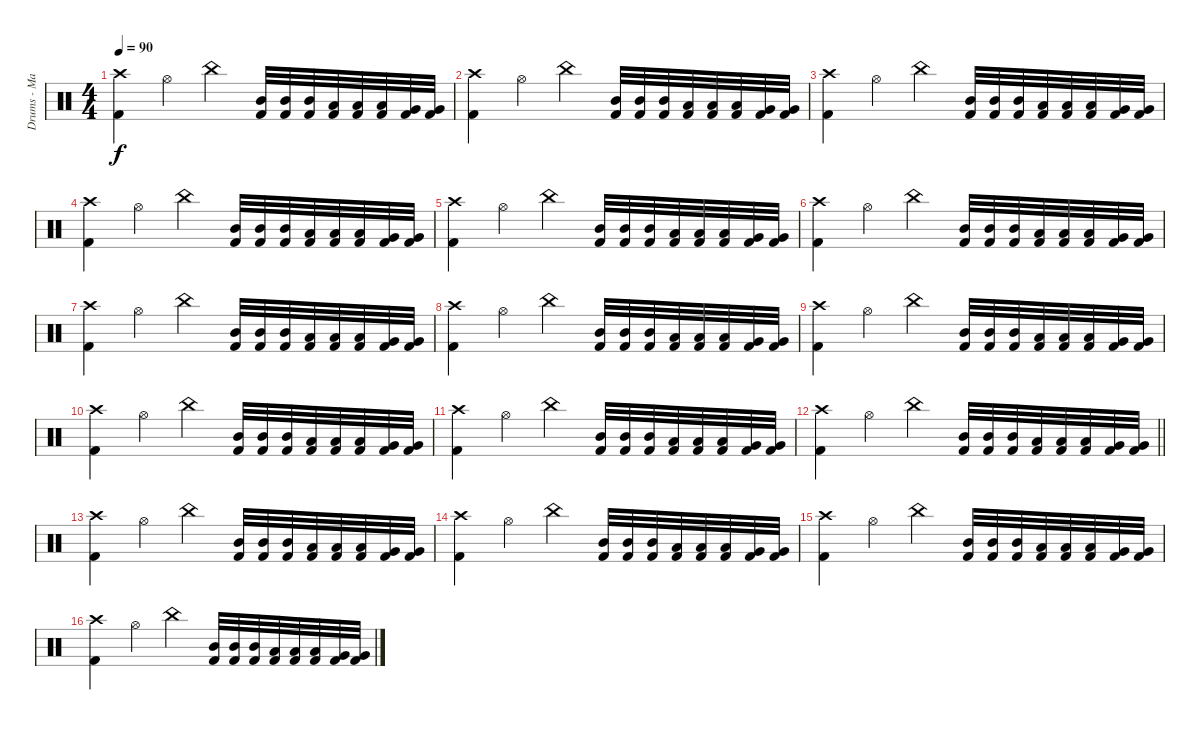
\track ("Drums - Mario Duplantier" "Drums - Ma") {instrument percussion}
\staff {score}
\articulation defaults
\ts (4 4)
\section ("" "")
\tempo 90
\clef neutral
\ks c
("Crash high (hit)" "Kick (hit) 2").4{dy f} "Hi-Hat (open)".4 "China (hit)".4 ("Mid Tom (hit)" "Kick (hit) 2").32 ("Mid Tom (hit)" "Kick (hit) 2").32 ("Mid Tom (hit)" "Kick (hit) 2").32 ("Low Tom (hit)" "Kick (hit) 2").32 ("Low Tom (hit)" "Kick (hit) 2").32 ("Low Tom (hit)" "Kick (hit) 2").32 ("Very Low Tom (hit)" "Kick (hit) 2").32 ("Very Low Tom (hit)" "Kick (hit) 2").32 |
("Crash high (hit)" "Kick (hit) 2").4 "Hi-Hat (open)".4 "China (hit)".4 ("Mid Tom (hit)" "Kick (hit) 2").32 ("Mid Tom (hit)" "Kick (hit) 2").32 ("Mid Tom (hit)" "Kick (hit) 2").32 ("Low Tom (hit)" "Kick (hit) 2").32 ("Low Tom (hit)" "Kick (hit) 2").32 ("Low Tom (hit)" "Kick (hit) 2").32 ("Very Low Tom (hit)" "Kick (hit) 2").32 ("Very Low Tom (hit)" "Kick (hit) 2").32 |
("Crash high (hit)" "Kick (hit) 2").4 "Hi-Hat (open)".4 "China (hit)".4 ("Mid Tom (hit)" "Kick (hit) 2").32 ("Mid Tom (hit)" "Kick (hit) 2").32 ("Mid Tom (hit)" "Kick (hit) 2").32 ("Low Tom (hit)" "Kick (hit) 2").32 ("Low Tom (hit)" "Kick (hit) 2").32 ("Low Tom (hit)" "Kick (hit) 2").32 ("Very Low Tom (hit)" "Kick (hit) 2").32 ("Very Low Tom (hit)" "Kick (hit) 2").32 |
("Crash high (hit)" "Kick (hit) 2").4 "Hi-Hat (open)".4 "China (hit)".4 ("Mid Tom (hit)" "Kick (hit) 2").32 ("Mid Tom (hit)" "Kick (hit) 2").32 ("Mid Tom (hit)" "Kick (hit) 2").32 ("Low Tom (hit)" "Kick (hit) 2").32 ("Low Tom (hit)" "Kick (hit) 2").32 ("Low Tom (hit)" "Kick (hit) 2").32 ("Very Low Tom (hit)" "Kick (hit) 2").32 ("Very Low Tom (hit)" "Kick (hit) 2").32 |
("Crash high (hit)" "Kick (hit) 2").4 "Hi-Hat (open)".4 "China (hit)".4 ("Mid Tom (hit)" "Kick (hit) 2").32 ("Mid Tom (hit)" "Kick (hit) 2").32 ("Mid Tom (hit)" "Kick (hit) 2").32 ("Low Tom (hit)" "Kick (hit) 2").32 ("Low Tom (hit)" "Kick (hit) 2").32 ("Low Tom (hit)" "Kick (hit) 2").32 ("Very Low Tom (hit)" "Kick (hit) 2").32 ("Very Low Tom (hit)" "Kick (hit) 2").32 |
("Crash high (hit)" "Kick (hit) 2").4 "Hi-Hat (open)".4 "China (hit)".4 ("Mid Tom (hit)" "Kick (hit) 2").32 ("Mid Tom (hit)" "Kick (hit) 2").32 ("Mid Tom (hit)" "Kick (hit) 2").32 ("Low Tom (hit)" "Kick (hit) 2").32 ("Low Tom (hit)" "Kick (hit) 2").32 ("Low Tom (hit)" "Kick (hit) 2").32 ("Very Low Tom (hit)" "Kick (hit) 2").32 ("Very Low Tom (hit)" "Kick (hit) 2").32 |
("Crash high (hit)" "Kick (hit) 2").4 "Hi-Hat (open)".4 "China (hit)".4 ("Mid Tom (hit)" "Kick (hit) 2").32 ("Mid Tom (hit)" "Kick (hit) 2").32 ("Mid Tom (hit)" "Kick (hit) 2").32 ("Low Tom (hit)" "Kick (hit) 2").32 ("Low Tom (hit)" "Kick (hit) 2").32 ("Low Tom (hit)" "Kick (hit) 2").32 ("Very Low Tom (hit)" "Kick (hit) 2").32 ("Very Low Tom (hit)" "Kick (hit) 2").32 |
("Crash high (hit)" "Kick (hit) 2").4 "Hi-Hat (open)".4 "China (hit)".4 ("Mid Tom (hit)" "Kick (hit) 2").32 ("Mid Tom (hit)" "Kick (hit) 2").32 ("Mid Tom (hit)" "Kick (hit) 2").32 ("Low Tom (hit)" "Kick (hit) 2").32 ("Low Tom (hit)" "Kick (hit) 2").32 ("Low Tom (hit)" "Kick (hit) 2").32 ("Very Low Tom (hit)" "Kick (hit) 2").32 ("Very Low Tom (hit)" "Kick (hit) 2").32 |
("Crash high (hit)" "Kick (hit) 2").4 "Hi-Hat (open)".4 "China (hit)".4 ("Mid Tom (hit)" "Kick (hit) 2").32 ("Mid Tom (hit)" "Kick (hit) 2").32 ("Mid Tom (hit)" "Kick (hit) 2").32 ("Low Tom (hit)" "Kick (hit) 2").32 ("Low Tom (hit)" "Kick (hit) 2").32 ("Low Tom (hit)" "Kick (hit) 2").32 ("Very Low Tom (hit)" "Kick (hit) 2").32 ("Very Low Tom (hit)" "Kick (hit) 2").32 |
("Crash high (hit)" "Kick (hit) 2").4 "Hi-Hat (open)".4 "China (hit)".4 ("Mid Tom (hit)" "Kick (hit) 2").32 ("Mid Tom (hit)" "Kick (hit) 2").32 ("Mid Tom (hit)" "Kick (hit) 2").32 ("Low Tom (hit)" "Kick (hit) 2").32 ("Low Tom (hit)" "Kick (hit) 2").32 ("Low Tom (hit)" "Kick (hit) 2").32 ("Very Low Tom (hit)" "Kick (hit) 2").32 ("Very Low Tom (hit)" "Kick (hit) 2").32 |
("Crash high (hit)" "Kick (hit) 2").4 "Hi-Hat (open)".4 "China (hit)".4 ("Mid Tom (hit)" "Kick (hit) 2").32 ("Mid Tom (hit)" "Kick (hit) 2").32 ("Mid Tom (hit)" "Kick (hit) 2").32 ("Low Tom (hit)" "Kick (hit) 2").32 ("Low Tom (hit)" "Kick (hit) 2").32 ("Low Tom (hit)" "Kick (hit) 2").32 ("Very Low Tom (hit)" "Kick (hit) 2").32 ("Very Low Tom (hit)" "Kick (hit) 2").32 |
\barLineRight lightlight
("Crash high (hit)" "Kick (hit) 2").4 "Hi-Hat (open)".4 "China (hit)".4 ("Mid Tom (hit)" "Kick (hit) 2").32 ("Mid Tom (hit)" "Kick (hit) 2").32 ("Mid Tom (hit)" "Kick (hit) 2").32 ("Low Tom (hit)" "Kick (hit) 2").32 ("Low Tom (hit)" "Kick (hit) 2").32 ("Low Tom (hit)" "Kick (hit) 2").32 ("Very Low Tom (hit)" "Kick (hit) 2").32 ("Very Low Tom (hit)" "Kick (hit) 2").32 |
\section ("" "")
("Crash high (hit)" "Kick (hit) 2").4 "Hi-Hat (open)".4 "China (hit)".4 ("Mid Tom (hit)" "Kick (hit) 2").32 ("Mid Tom (hit)" "Kick (hit) 2").32 ("Mid Tom (hit)" "Kick (hit) 2").32 ("Low Tom (hit)" "Kick (hit) 2").32 ("Low Tom (hit)" "Kick (hit) 2").32 ("Low Tom (hit)" "Kick (hit) 2").32 ("Very Low Tom (hit)" "Kick (hit) 2").32 ("Very Low Tom (hit)" "Kick (hit) 2").32 |
("Crash high (hit)" "Kick (hit) 2").4 "Hi-Hat (open)".4 "China (hit)".4 ("Mid Tom (hit)" "Kick (hit) 2").32 ("Mid Tom (hit)" "Kick (hit) 2").32 ("Mid Tom (hit)" "Kick (hit) 2").32 ("Low Tom (hit)" "Kick (hit) 2").32 ("Low Tom (hit)" "Kick (hit) 2").32 ("Low Tom (hit)" "Kick (hit) 2").32 ("Very Low Tom (hit)" "Kick (hit) 2").32 ("Very Low Tom (hit)" "Kick (hit) 2").32 |
("Crash high (hit)" "Kick (hit) 2").4 "Hi-Hat (open)".4 "China (hit)".4 ("Mid Tom (hit)" "Kick (hit) 2").32 ("Mid Tom (hit)" "Kick (hit) 2").32 ("Mid Tom (hit)" "Kick (hit) 2").32 ("Low Tom (hit)" "Kick (hit) 2").32 ("Low Tom (hit)" "Kick (hit) 2").32 ("Low Tom (hit)" "Kick (hit) 2").32 ("Very Low Tom (hit)" "Kick (hit) 2").32 ("Very Low Tom (hit)" "Kick (hit) 2").32 |
("Crash high (hit)" "Kick (hit) 2").4 "Hi-Hat (open)".4 "China (hit)".4 ("Mid Tom (hit)" "Kick (hit) 2").32 ("Mid Tom (hit)" "Kick (hit) 2").32 ("Mid Tom (hit)" "Kick (hit) 2").32 ("Low Tom (hit)" "Kick (hit) 2").32 ("Low Tom (hit)" "Kick (hit) 2").32 ("Low Tom (hit)" "Kick (hit) 2").32 ("Very Low Tom (hit)" "Kick (hit) 2").32 ("Very Low Tom (hit)" "Kick (hit) 2").32
